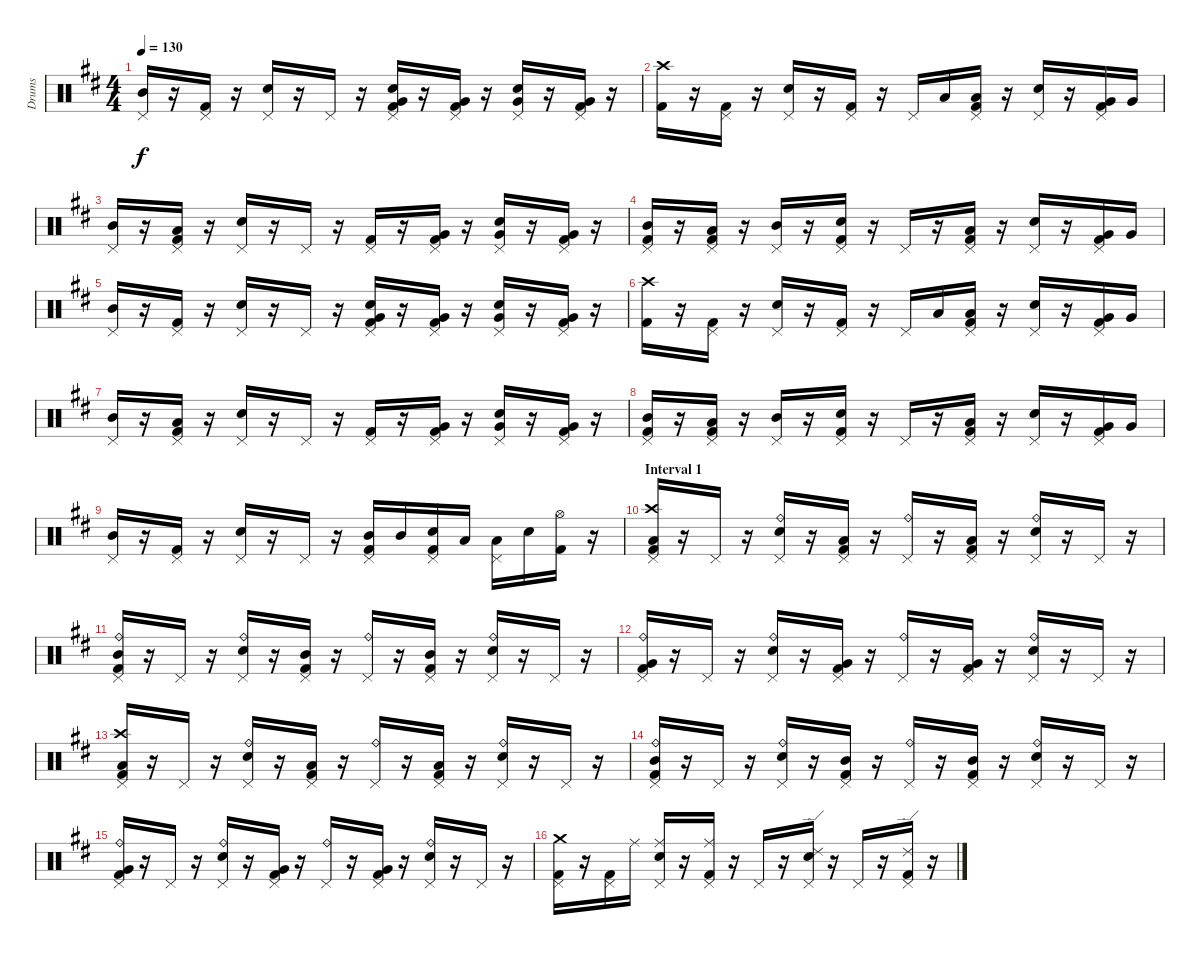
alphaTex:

\track ("Drums" "Drums") {instrument percussion}
\staff {score}
\articulation defaults
\ts (4 4)
\tempo 130
\clef neutral
\ks d
("Mid Tom (hit)" "Pedal Hi-Hat (hit)").16{dy f} r.16 ("Pedal Hi-Hat (hit)" "Kick (hit) 2").16 r.16 ("Pedal Hi-Hat (hit)" "Electric Snare (hit)").16 r.16 "Pedal Hi-Hat (hit)".16 r.16 ("Pedal Hi-Hat (hit)" "Electric Snare (hit)" "Very Low Tom (hit)" "Kick (hit) 2").16 r.16 ("Pedal Hi-Hat (hit)" "Very Low Tom (hit)" "Kick (hit) 2").16 r.16 ("Pedal Hi-Hat (hit)" "Electric Snare (hit)" "Very Low Tom (hit)").16 r.16 ("Pedal Hi-Hat (hit)" "Very Low Tom (hit)" "Kick (hit) 2").16 r.16 |
("Crash high (hit)" "Kick (hit) 2").16 r.16 ("Pedal Hi-Hat (hit)" "Kick (hit) 2").16 r.16 ("Pedal Hi-Hat (hit)" "Electric Snare (hit)").16 r.16 ("Pedal Hi-Hat (hit)" "Kick (hit) 2").16 r.16 "Pedal Hi-Hat (hit)".16 "Low Tom (hit)".16 ("Pedal Hi-Hat (hit)" "Low Tom (hit)" "Kick (hit) 2").16 r.16 ("Pedal Hi-Hat (hit)" "Electric Snare (hit)").16 r.16 ("Pedal Hi-Hat (hit)" "Very Low Tom (hit)" "Kick (hit) 2").16 "Very Low Tom (hit)".16 |
("Mid Tom (hit)" "Pedal Hi-Hat (hit)").16 r.16 ("Pedal Hi-Hat (hit)" "Low Tom (hit)" "Kick (hit) 2").16 r.16 ("Pedal Hi-Hat (hit)" "Electric Snare (hit)").16 r.16 "Pedal Hi-Hat (hit)".16 r.16 ("Pedal Hi-Hat (hit)" "Kick (hit) 2").16 r.16 ("Pedal Hi-Hat (hit)" "Very Low Tom (hit)" "Kick (hit) 2").16 r.16 ("Pedal Hi-Hat (hit)" "Electric Snare (hit)" "Very Low Tom (hit)").16 r.16 ("Pedal Hi-Hat (hit)" "Very Low Tom (hit)" "Kick (hit) 2").16 r.16 |
("Mid Tom (hit)" "Pedal Hi-Hat (hit)" "Kick (hit) 2").16 r.16 ("Pedal Hi-Hat (hit)" "Low Tom (hit)" "Kick (hit) 2").16 r.16 ("Mid Tom (hit)" "Pedal Hi-Hat (hit)").16 r.16 ("Pedal Hi-Hat (hit)" "Electric Snare (hit)" "Kick (hit) 2").16 r.16 "Pedal Hi-Hat (hit)".16 r.16 ("Pedal Hi-Hat (hit)" "Low Tom (hit)" "Kick (hit) 2").16 r.16 ("Pedal Hi-Hat (hit)" "Electric Snare (hit)").16 r.16 ("Pedal Hi-Hat (hit)" "Very Low Tom (hit)" "Kick (hit) 2").16 "Very Low Tom (hit)".16 |
("Mid Tom (hit)" "Pedal Hi-Hat (hit)").16 r.16 ("Pedal Hi-Hat (hit)" "Kick (hit) 2").16 r.16 ("Pedal Hi-Hat (hit)" "Electric Snare (hit)").16 r.16 "Pedal Hi-Hat (hit)".16 r.16 ("Pedal Hi-Hat (hit)" "Electric Snare (hit)" "Very Low Tom (hit)" "Kick (hit) 2").16 r.16 ("Pedal Hi-Hat (hit)" "Very Low Tom (hit)" "Kick (hit) 2").16 r.16 ("Pedal Hi-Hat (hit)" "Electric Snare (hit)" "Very Low Tom (hit)").16 r.16 ("Pedal Hi-Hat (hit)" "Very Low Tom (hit)" "Kick (hit) 2").16 r.16 |
("Crash high (hit)" "Kick (hit) 2").16 r.16 ("Pedal Hi-Hat (hit)" "Kick (hit) 2").16 r.16 ("Pedal Hi-Hat (hit)" "Electric Snare (hit)").16 r.16 ("Pedal Hi-Hat (hit)" "Kick (hit) 2").16 r.16 "Pedal Hi-Hat (hit)".16 "Low Tom (hit)".16 ("Pedal Hi-Hat (hit)" "Low Tom (hit)" "Kick (hit) 2").16 r.16 ("Pedal Hi-Hat (hit)" "Electric Snare (hit)").16 r.16 ("Pedal Hi-Hat (hit)" "Very Low Tom (hit)" "Kick (hit) 2").16 "Very Low Tom (hit)".16 |
("Mid Tom (hit)" "Pedal Hi-Hat (hit)").16 r.16 ("Pedal Hi-Hat (hit)" "Low Tom (hit)" "Kick (hit) 2").16 r.16 ("Pedal Hi-Hat (hit)" "Electric Snare (hit)").16 r.16 "Pedal Hi-Hat (hit)".16 r.16 ("Pedal Hi-Hat (hit)" "Kick (hit) 2").16 r.16 ("Pedal Hi-Hat (hit)" "Very Low Tom (hit)" "Kick (hit) 2").16 r.16 ("Pedal Hi-Hat (hit)" "Electric Snare (hit)" "Very Low Tom (hit)").16 r.16 ("Pedal Hi-Hat (hit)" "Very Low Tom (hit)" "Kick (hit) 2").16 r.16 |
("Mid Tom (hit)" "Pedal Hi-Hat (hit)" "Kick (hit) 2").16 r.16 ("Pedal Hi-Hat (hit)" "Low Tom (hit)" "Kick (hit) 2").16 r.16 ("Mid Tom (hit)" "Pedal Hi-Hat (hit)").16 r.16 ("Pedal Hi-Hat (hit)" "Electric Snare (hit)" "Kick (hit) 2").16 r.16 "Pedal Hi-Hat (hit)".16 r.16 ("Pedal Hi-Hat (hit)" "Low Tom (hit)" "Kick (hit) 2").16 r.16 ("Pedal Hi-Hat (hit)" "Electric Snare (hit)").16 r.16 ("Pedal Hi-Hat (hit)" "Very Low Tom (hit)" "Kick (hit) 2").16 "Very Low Tom (hit)".16 |
("Mid Tom (hit)" "Pedal Hi-Hat (hit)").16 r.16 ("Pedal Hi-Hat (hit)" "Kick (hit) 2").16 r.16 ("Pedal Hi-Hat (hit)" "Electric Snare (hit)").16 r.16 "Pedal Hi-Hat (hit)".16 r.16 ("Mid Tom (hit)" "Pedal Hi-Hat (hit)" "Kick (hit) 2").16 "Mid Tom (hit)".16 ("Pedal Hi-Hat (hit)" "Electric Snare (hit)" "Kick (hit) 2").16 "Low Tom (hit)".16 ("Pedal Hi-Hat (hit)" "Low Tom (hit)").16 "Electric Snare (hit)".16 ("Hi-Hat (open)" "Kick (hit) 2").16 r.16 |
\section ("" "Interval 1")
("Crash high (hit)" "Pedal Hi-Hat (hit)" "Low Tom (hit)" "Kick (hit) 2").16 r.16 "Pedal Hi-Hat (hit)".16 r.16 ("Ride (bell)" "Pedal Hi-Hat (hit)" "Electric Snare (hit)").16 r.16 ("Pedal Hi-Hat (hit)" "Low Tom (hit)" "Kick (hit) 2").16 r.16 ("Ride (bell)" "Pedal Hi-Hat (hit)").16 r.16 ("Pedal Hi-Hat (hit)" "Low Tom (hit)" "Kick (hit) 2").16 r.16 ("Ride (bell)" "Pedal Hi-Hat (hit)" "Electric Snare (hit)").16 r.16 "Pedal Hi-Hat (hit)".16 r.16 |
("Ride (bell)" "Mid Tom (hit)" "Pedal Hi-Hat (hit)" "Kick (hit) 2").16 r.16 "Pedal Hi-Hat (hit)".16 r.16 ("Ride (bell)" "Pedal Hi-Hat (hit)" "Electric Snare (hit)").16 r.16 ("Mid Tom (hit)" "Pedal Hi-Hat (hit)" "Kick (hit) 2").16 r.16 ("Ride (bell)" "Pedal Hi-Hat (hit)").16 r.16 ("Mid Tom (hit)" "Pedal Hi-Hat (hit)" "Kick (hit) 2").16 r.16 ("Ride (bell)" "Pedal Hi-Hat (hit)" "Electric Snare (hit)").16 r.16 "Pedal Hi-Hat (hit)".16 r.16 |
("Ride (bell)" "Pedal Hi-Hat (hit)" "Very Low Tom (hit)" "Kick (hit) 2").16 r.16 "Pedal Hi-Hat (hit)".16 r.16 ("Ride (bell)" "Pedal Hi-Hat (hit)" "Electric Snare (hit)").16 r.16 ("Pedal Hi-Hat (hit)" "Very Low Tom (hit)" "Kick (hit) 2").16 r.16 ("Ride (bell)" "Pedal Hi-Hat (hit)").16 r.16 ("Pedal Hi-Hat (hit)" "Very Low Tom (hit)" "Kick (hit) 2").16 r.16 ("Ride (bell)" "Pedal Hi-Hat (hit)" "Electric Snare (hit)").16 r.16 "Pedal Hi-Hat (hit)".16 r.16 |
("Crash high (hit)" "Pedal Hi-Hat (hit)" "Low Tom (hit)" "Kick (hit) 2").16 r.16 "Pedal Hi-Hat (hit)".16 r.16 ("Ride (bell)" "Pedal Hi-Hat (hit)" "Electric Snare (hit)").16 r.16 ("Pedal Hi-Hat (hit)" "Low Tom (hit)" "Kick (hit) 2").16 r.16 ("Ride (bell)" "Pedal Hi-Hat (hit)").16 r.16 ("Pedal Hi-Hat (hit)" "Low Tom (hit)" "Kick (hit) 2").16 r.16 ("Ride (bell)" "Pedal Hi-Hat (hit)" "Electric Snare (hit)").16 r.16 "Pedal Hi-Hat (hit)".16 r.16 |
("Ride (bell)" "Mid Tom (hit)" "Pedal Hi-Hat (hit)" "Kick (hit) 2").16 r.16 "Pedal Hi-Hat (hit)".16 r.16 ("Ride (bell)" "Pedal Hi-Hat (hit)" "Electric Snare (hit)").16 r.16 ("Mid Tom (hit)" "Pedal Hi-Hat (hit)" "Kick (hit) 2").16 r.16 ("Ride (bell)" "Pedal Hi-Hat (hit)").16 r.16 ("Mid Tom (hit)" "Pedal Hi-Hat (hit)" "Kick (hit) 2").16 r.16 ("Ride (bell)" "Pedal Hi-Hat (hit)" "Electric Snare (hit)").16 r.16 "Pedal Hi-Hat (hit)".16 r.16 |
("Ride (bell)" "Pedal Hi-Hat (hit)" "Very Low Tom (hit)" "Kick (hit) 2").16 r.16 "Pedal Hi-Hat (hit)".16 r.16 ("Ride (bell)" "Pedal Hi-Hat (hit)" "Electric Snare (hit)").16 r.16 ("Pedal Hi-Hat (hit)" "Very Low Tom (hit)" "Kick (hit) 2").16 r.16 ("Ride (bell)" "Pedal Hi-Hat (hit)").16 r.16 ("Pedal Hi-Hat (hit)" "Very Low Tom (hit)" "Kick (hit) 2").16 r.16 ("Ride (bell)" "Pedal Hi-Hat (hit)" "Electric Snare (hit)").16 r.16 "Pedal Hi-Hat (hit)".16 r.16 |
("Crash medium (hit)" "Pedal Hi-Hat (hit)" "Kick (hit) 2").16 r.16 ("Pedal Hi-Hat (hit)" "Kick (hit) 2").16 "Ride (middle)".16 ("Ride (middle)" "Pedal Hi-Hat (hit)" "Electric Snare (hit)").16 r.16 ("Ride (middle)" "Pedal Hi-Hat (hit)" "Kick (hit) 2").16 r.16 "Pedal Hi-Hat (hit)".16 r.16 ("Ride (edge) 2" "Pedal Hi-Hat (hit)" "Electric Snare (hit)").16 r.16 "Pedal Hi-Hat (hit)".16 r.16 ("Ride (edge) 2" "Pedal Hi-Hat (hit)" "Kick (hit) 2").16 r.16
